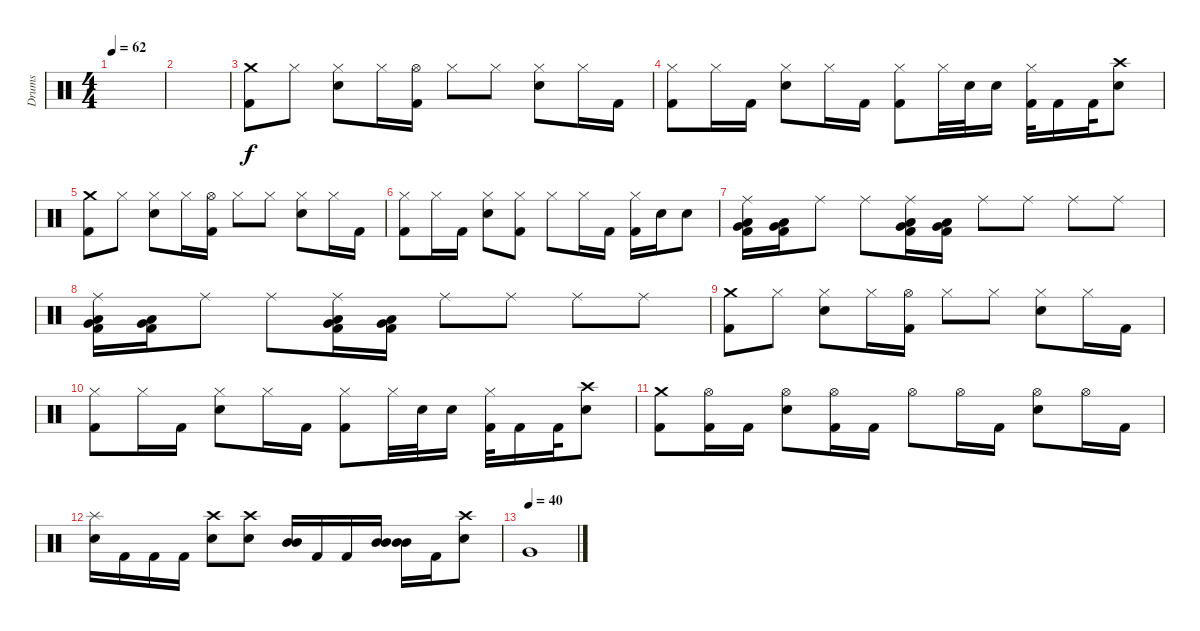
\track ("Drums" "Drums") {instrument percussion}
\staff {score}
\articulation defaults
\ts (4 4)
\tempo 62
\clef neutral
\ks c
|
|
("Crash medium (hit)" "Kick (hit) 2").8{volume 12} "Hi-Hat (closed)".8 ("Hi-Hat (closed)" "Electric Snare (hit)").8 "Hi-Hat (closed)".16 ("Hi-Hat (open)" "Kick (hit) 2").16 "Hi-Hat (closed)".8 "Hi-Hat (closed)".8 ("Hi-Hat (closed)" "Electric Snare (hit)").8 "Hi-Hat (closed)".16 "Kick (hit) 2".16 |
("Hi-Hat (closed)" "Kick (hit) 2").8 "Hi-Hat (closed)".16 "Kick (hit) 2".16 ("Hi-Hat (closed)" "Electric Snare (hit)").8 "Hi-Hat (closed)".16 "Kick (hit) 2".16 ("Hi-Hat (closed)" "Kick (hit) 2").8 "Hi-Hat (closed)".32 "Electric Snare (hit)".32 "Electric Snare (hit)".16 ("Hi-Hat (closed)" "Kick (hit) 2").32 "Kick (hit) 2".16 "Kick (hit) 2".32 ("Crash high (hit)" "Electric Snare (hit)").8 |
("Crash medium (hit)" "Kick (hit) 2").8 "Hi-Hat (closed)".8 ("Hi-Hat (closed)" "Electric Snare (hit)").8 "Hi-Hat (closed)".16 ("Hi-Hat (open)" "Kick (hit) 2").16 "Hi-Hat (closed)".8 "Hi-Hat (closed)".8 ("Hi-Hat (closed)" "Electric Snare (hit)").8 "Hi-Hat (closed)".16 "Kick (hit) 2".16 |
("Hi-Hat (closed)" "Kick (hit) 2").8 "Hi-Hat (closed)".16 "Kick (hit) 2".16 ("Hi-Hat (closed)" "Electric Snare (hit)").8 ("Hi-Hat (closed)" "Kick (hit) 2").8 "Hi-Hat (closed)".8 "Hi-Hat (closed)".16 "Kick (hit) 2".16 ("Hi-Hat (closed)" "Kick (hit) 2").16 "Electric Snare (hit)".16 "Electric Snare (hit)".8 |
("Ride (middle)" "Very Low Tom (hit)" "Low Floor Tom (hit)" "Kick (hit) 2").16 ("Very Low Tom (hit)" "Low Floor Tom (hit)" "Kick (hit) 2").16 "Ride (middle)".8 "Ride (middle)".8 ("Ride (middle)" "Very Low Tom (hit)" "Low Floor Tom (hit)" "Kick (hit) 2").16 ("Very Low Tom (hit)" "Low Floor Tom (hit)" "Kick (hit) 2").16 "Ride (middle)".8 "Ride (middle)".8 "Ride (middle)".8 "Ride (middle)".8 |
("Ride (middle)" "Very Low Tom (hit)" "Low Floor Tom (hit)" "Kick (hit) 2").16 ("Very Low Tom (hit)" "Low Floor Tom (hit)" "Kick (hit) 2").16 "Ride (middle)".8 "Ride (middle)".8 ("Ride (middle)" "Very Low Tom (hit)" "Low Floor Tom (hit)" "Kick (hit) 2").16 ("Very Low Tom (hit)" "Low Floor Tom (hit)" "Kick (hit) 2").16 "Ride (middle)".8 "Ride (middle)".8 "Ride (middle)".8 "Ride (middle)".8 |
("Crash medium (hit)" "Kick (hit) 2").8{volume 10} "Hi-Hat (closed)".8 ("Hi-Hat (closed)" "Electric Snare (hit)").8 "Hi-Hat (closed)".16 ("Hi-Hat (open)" "Kick (hit) 2").16 "Hi-Hat (closed)".8 "Hi-Hat (closed)".8 ("Hi-Hat (closed)" "Electric Snare (hit)").8 "Hi-Hat (closed)".16 "Kick (hit) 2".16 |
("Hi-Hat (closed)" "Kick (hit) 2").8 "Hi-Hat (closed)".16 "Kick (hit) 2".16 ("Hi-Hat (closed)" "Electric Snare (hit)").8 "Hi-Hat (closed)".16 "Kick (hit) 2".16 ("Hi-Hat (closed)" "Kick (hit) 2").8 "Hi-Hat (closed)".32 "Electric Snare (hit)".32 "Electric Snare (hit)".16 ("Hi-Hat (closed)" "Kick (hit) 2").32 "Kick (hit) 2".16 "Kick (hit) 2".32 ("Crash high (hit)" "Electric Snare (hit)").8 |
("Crash medium (hit)" "Kick (hit) 2").8{volume 10} ("Hi-Hat (open)" "Kick (hit) 2").16 "Kick (hit) 2".16 ("Hi-Hat (open)" "Electric Snare (hit)").8 ("Hi-Hat (open)" "Kick (hit) 2").16 "Kick (hit) 2".16 "Hi-Hat (open)".8 "Hi-Hat (open)".16 "Kick (hit) 2".16 ("Hi-Hat (open)" "Electric Snare (hit)").8 "Hi-Hat (open)".16 "Kick (hit) 2".16 |
("Splash (hit)" "Electric Snare (hit)").16 "Kick (hit) 2".16 "Kick (hit) 2".16 "Kick (hit) 2".16 ("Crash high (hit)" "Electric Snare (hit)").8 ("Crash high (hit)" "Electric Snare (hit)").8 ("Mid Tom (hit)" "Mid Tom (hit)").16 "Kick (hit) 2".16 "Kick (hit) 2".16 ("Mid Tom (hit)" "Mid Tom (hit)").16 ("Mid Tom (hit)" "Mid Tom (hit)").16 "Kick (hit) 2".16 ("Crash high (hit)" "Electric Snare (hit)").8 |
\tempo (40)
"Very Low Tom (hit)".1
